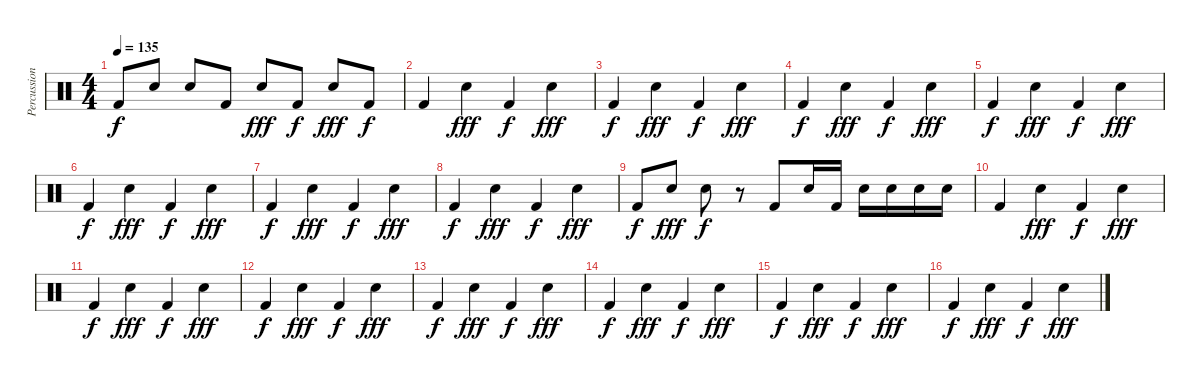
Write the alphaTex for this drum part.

\track ("Percussion1" "Percussion") {instrument percussion}
\staff {score}
\articulation defaults
\ts (4 4)
\tempo 135
\clef neutral
\ks c "Kick (hit) 2".8{dy f} "Snare (hit) 2".8 "Snare (hit) 2".8 "Kick (hit) 2".8 "Electric Snare (hit)".8{dy fff} "Kick (hit) 2".8{dy f} "Electric Snare (hit)".8{dy fff} "Kick (hit) 2".8{dy f}
|
"Kick (hit) 2".4 "Electric Snare (hit)".4{dy fff} "Kick (hit) 2".4{dy f} "Electric Snare (hit)".4{dy fff} |
"Kick (hit) 2".4{dy f} "Electric Snare (hit)".4{dy fff} "Kick (hit) 2".4{dy f} "Electric Snare (hit)".4{dy fff} |
"Kick (hit) 2".4{dy f} "Electric Snare (hit)".4{dy fff} "Kick (hit) 2".4{dy f} "Electric Snare (hit)".4{dy fff} |
"Kick (hit) 2".4{dy f} "Electric Snare (hit)".4{dy fff} "Kick (hit) 2".4{dy f} "Electric Snare (hit)".4{dy fff} |
"Kick (hit) 2".4{dy f} "Electric Snare (hit)".4{dy fff} "Kick (hit) 2".4{dy f} "Electric Snare (hit)".4{dy fff} |
"Kick (hit) 2".4{dy f} "Electric Snare (hit)".4{dy fff} "Kick (hit) 2".4{dy f} "Electric Snare (hit)".4{dy fff} |
"Kick (hit) 2".4{dy f} "Electric Snare (hit)".4{dy fff} "Kick (hit) 2".4{dy f} "Electric Snare (hit)".4{dy fff} |
"Kick (hit) 2".8{dy f} "Electric Snare (hit)".8{dy fff} "Electric Snare (hit)".8{dy f} r.8 "Kick (hit) 2".8 "Electric Snare (hit)".16 "Kick (hit) 2".16 "Electric Snare (hit)".16 "Snare (hit) 2".16 "Electric Snare (hit)".16 "Snare (hit) 2".16 |
"Kick (hit) 2".4 "Electric Snare (hit)".4{dy fff} "Kick (hit) 2".4{dy f} "Electric Snare (hit)".4{dy fff} |
"Kick (hit) 2".4{dy f} "Electric Snare (hit)".4{dy fff} "Kick (hit) 2".4{dy f} "Electric Snare (hit)".4{dy fff} |
"Kick (hit) 2".4{dy f} "Electric Snare (hit)".4{dy fff} "Kick (hit) 2".4{dy f} "Electric Snare (hit)".4{dy fff} |
"Kick (hit) 2".4{dy f} "Electric Snare (hit)".4{dy fff} "Kick (hit) 2".4{dy f} "Electric Snare (hit)".4{dy fff} |
"Kick (hit) 2".4{dy f} "Electric Snare (hit)".4{dy fff} "Kick (hit) 2".4{dy f} "Electric Snare (hit)".4{dy fff} |
"Kick (hit) 2".4{dy f} "Electric Snare (hit)".4{dy fff} "Kick (hit) 2".4{dy f} "Electric Snare (hit)".4{dy fff} |
"Kick (hit) 2".4{dy f} "Electric Snare (hit)".4{dy fff} "Kick (hit) 2".4{dy f} "Electric Snare (hit)".4{dy fff}
